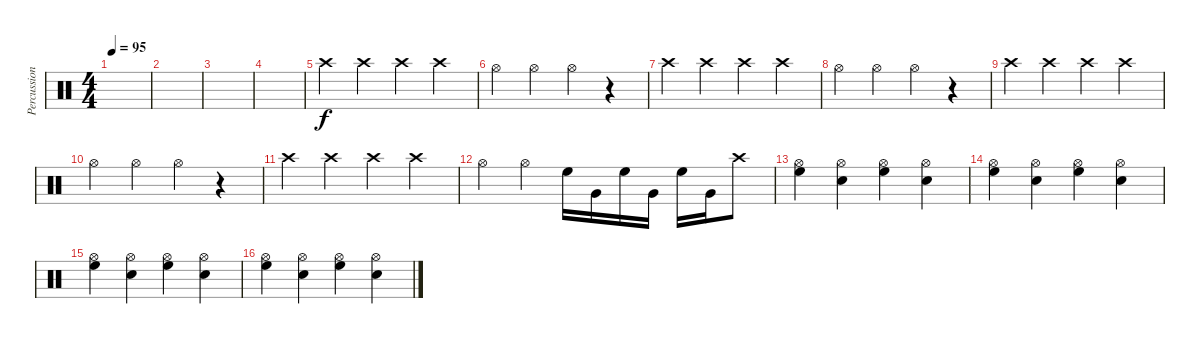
\track ("Percussion" "Percussion") {instrument percussion}
\staff {score}
\articulation defaults
\ts (4 4)
\tempo 95
\clef neutral
\ks c
|
|
|
|
"Crash high (hit)".4 "Crash high (hit)".4 "Crash high (hit)".4 "Crash high (hit)".4 |
"Hi-Hat (open)".4 "Hi-Hat (open)".4 "Hi-Hat (open)".4 r.4 |
"Crash high (hit)".4 "Crash high (hit)".4 "Crash high (hit)".4 "Crash high (hit)".4 |
"Hi-Hat (open)".4 "Hi-Hat (open)".4 "Hi-Hat (open)".4 r.4 |
"Crash high (hit)".4 "Crash high (hit)".4 "Crash high (hit)".4 "Crash high (hit)".4 |
"Hi-Hat (open)".4 "Hi-Hat (open)".4 "Hi-Hat (open)".4 r.4 |
"Crash high (hit)".4 "Crash high (hit)".4 "Crash high (hit)".4 "Crash high (hit)".4 |
"Hi-Hat (open)".4 "Hi-Hat (open)".4 "High Floor Tom (hit)".16 "Very Low Tom (hit)".16 "High Floor Tom (hit)".16 "Very Low Tom (hit)".16 "High Floor Tom (hit)".16 "Very Low Tom (hit)".16 "Crash high (hit)".8 |
("High Floor Tom (hit)" "Hi-Hat (open)").4 ("Snare (hit) 2" "Hi-Hat (open)").4 ("High Floor Tom (hit)" "Hi-Hat (open)").4 ("Snare (hit) 2" "Hi-Hat (open)").4 |
("High Floor Tom (hit)" "Hi-Hat (open)").4 ("Snare (hit) 2" "Hi-Hat (open)").4 ("High Floor Tom (hit)" "Hi-Hat (open)").4 ("Snare (hit) 2" "Hi-Hat (open)").4 |
("High Floor Tom (hit)" "Hi-Hat (open)").4 ("Snare (hit) 2" "Hi-Hat (open)").4 ("High Floor Tom (hit)" "Hi-Hat (open)").4 ("Snare (hit) 2" "Hi-Hat (open)").4 |
("High Floor Tom (hit)" "Hi-Hat (open)").4 ("Snare (hit) 2" "Hi-Hat (open)").4 ("High Floor Tom (hit)" "Hi-Hat (open)").4 ("Snare (hit) 2" "Hi-Hat (open)").4
